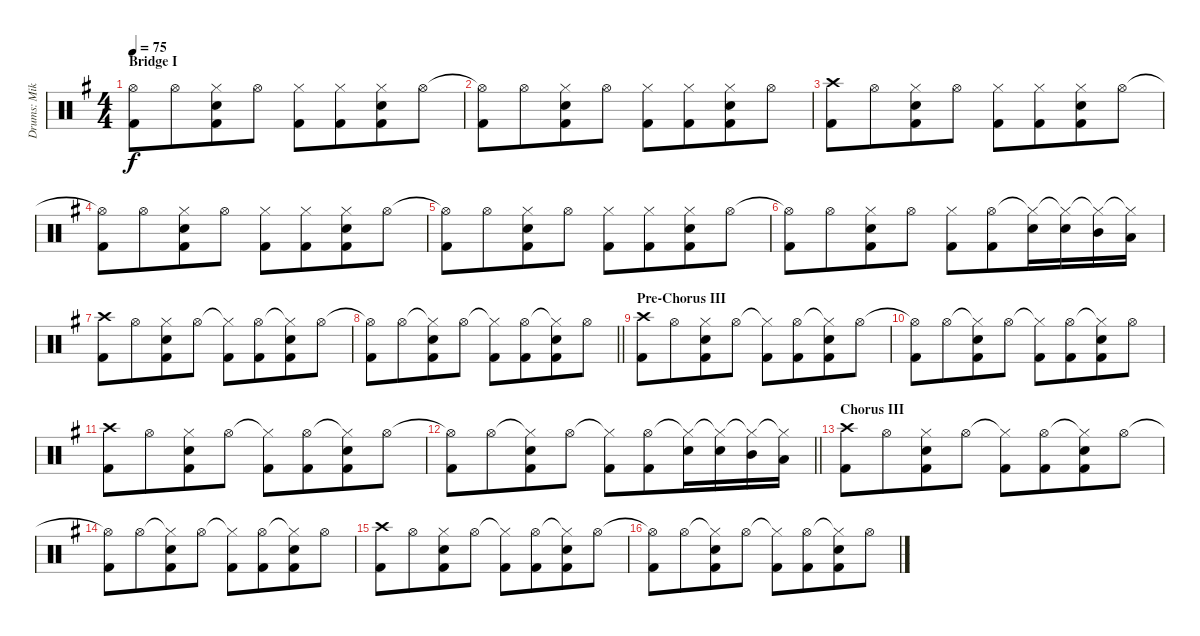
\track ("Drums: Mike" "Drums: Mik") {instrument percussion}
\staff {score}
\articulation defaults
\ts (4 4)
\section ("" "Bridge I")
\tempo 75
\clef neutral
\ks g
("Hi-Hat (open)"{t} "Kick (hit) 2").8{dy f} "Hi-Hat (open)".8{beam merge} ("Hi-Hat (closed)" "Electric Snare (hit)" "Kick (hit) 2").8 "Hi-Hat (open)".8 ("Hi-Hat (closed)" "Kick (hit) 2").8 ("Hi-Hat (closed)" "Kick (hit) 2").8{beam merge} ("Hi-Hat (closed)" "Electric Snare (hit)" "Kick (hit) 2").8 "Hi-Hat (open)".8 |
("Hi-Hat (open)"{t} "Kick (hit) 2").8 "Hi-Hat (open)".8{beam merge} ("Hi-Hat (closed)" "Electric Snare (hit)" "Kick (hit) 2").8 "Hi-Hat (open)".8 ("Hi-Hat (closed)" "Kick (hit) 2").8 ("Hi-Hat (closed)" "Kick (hit) 2").8{beam merge} ("Hi-Hat (closed)" "Electric Snare (hit)" "Kick (hit) 2").8 "Hi-Hat (open)".8 |
("Crash high (hit)" "Kick (hit) 2").8 "Hi-Hat (open)".8{beam merge} ("Hi-Hat (closed)" "Electric Snare (hit)" "Kick (hit) 2").8 "Hi-Hat (open)".8 ("Hi-Hat (closed)" "Kick (hit) 2").8 ("Hi-Hat (closed)" "Kick (hit) 2").8{beam merge} ("Hi-Hat (closed)" "Electric Snare (hit)" "Kick (hit) 2").8 "Hi-Hat (open)".8 |
("Hi-Hat (open)"{t} "Kick (hit) 2").8 "Hi-Hat (open)".8{beam merge} ("Hi-Hat (closed)" "Electric Snare (hit)" "Kick (hit) 2").8 "Hi-Hat (open)".8 ("Hi-Hat (closed)" "Kick (hit) 2").8 ("Hi-Hat (closed)" "Kick (hit) 2").8{beam merge} ("Hi-Hat (closed)" "Electric Snare (hit)" "Kick (hit) 2").8 "Hi-Hat (open)".8 |
("Hi-Hat (open)"{t} "Kick (hit) 2").8 "Hi-Hat (open)".8{beam merge} ("Hi-Hat (closed)" "Electric Snare (hit)" "Kick (hit) 2").8 "Hi-Hat (open)".8 ("Hi-Hat (closed)" "Kick (hit) 2").8 ("Hi-Hat (closed)" "Kick (hit) 2").8{beam merge} ("Hi-Hat (closed)" "Electric Snare (hit)" "Kick (hit) 2").8 "Hi-Hat (open)".8 |
("Hi-Hat (open)"{t} "Kick (hit) 2").8 "Hi-Hat (open)".8{beam merge} ("Hi-Hat (closed)" "Electric Snare (hit)" "Kick (hit) 2").8 "Hi-Hat (open)".8 ("Hi-Hat (closed)" "Kick (hit) 2").8 ("Hi-Hat (open)" "Kick (hit) 2").8{beam merge} ("Hi-Hat (closed)"{t} "Electric Snare (hit)").16{beam merge} ("Hi-Hat (closed)"{t} "Electric Snare (hit)").16{beam merge} ("Hi-Hat (closed)"{t} "Mid Tom (hit)").16{beam merge} ("Hi-Hat (closed)"{t} "Low Tom (hit)").16 |
("Crash high (hit)" "Kick (hit) 2").8 "Hi-Hat (open)".8{beam merge} ("Hi-Hat (closed)" "Electric Snare (hit)" "Kick (hit) 2").8 "Hi-Hat (open)".8 ("Hi-Hat (closed)"{t} "Kick (hit) 2").8 ("Hi-Hat (open)" "Kick (hit) 2").8{beam merge} ("Hi-Hat (closed)"{t} "Electric Snare (hit)" "Kick (hit) 2").8 "Hi-Hat (open)".8 |
\barLineRight lightlight
("Hi-Hat (open)"{t} "Kick (hit) 2").8 "Hi-Hat (open)".8{beam merge} ("Hi-Hat (closed)"{t} "Electric Snare (hit)" "Kick (hit) 2").8 "Hi-Hat (open)".8 ("Hi-Hat (closed)"{t} "Kick (hit) 2").8 ("Hi-Hat (open)" "Kick (hit) 2").8{beam merge} ("Hi-Hat (closed)"{t} "Electric Snare (hit)" "Kick (hit) 2").8 "Hi-Hat (open)".8 |
\section ("" "Pre-Chorus III")
("Crash high (hit)" "Kick (hit) 2").8 "Hi-Hat (open)".8{beam merge} ("Hi-Hat (closed)" "Electric Snare (hit)" "Kick (hit) 2").8 "Hi-Hat (open)".8 ("Hi-Hat (closed)"{t} "Kick (hit) 2").8 ("Hi-Hat (open)" "Kick (hit) 2").8{beam merge} ("Hi-Hat (closed)"{t} "Electric Snare (hit)" "Kick (hit) 2").8 "Hi-Hat (open)".8 |
("Hi-Hat (open)"{t} "Kick (hit) 2").8 "Hi-Hat (open)".8{beam merge} ("Hi-Hat (closed)"{t} "Electric Snare (hit)" "Kick (hit) 2").8 "Hi-Hat (open)".8 ("Hi-Hat (closed)"{t} "Kick (hit) 2").8 ("Hi-Hat (open)" "Kick (hit) 2").8{beam merge} ("Hi-Hat (closed)"{t} "Electric Snare (hit)" "Kick (hit) 2").8 "Hi-Hat (open)".8 |
("Crash high (hit)" "Kick (hit) 2").8 "Hi-Hat (open)".8{beam merge} ("Hi-Hat (closed)" "Electric Snare (hit)" "Kick (hit) 2").8 "Hi-Hat (open)".8 ("Hi-Hat (closed)"{t} "Kick (hit) 2").8 ("Hi-Hat (open)" "Kick (hit) 2").8{beam merge} ("Hi-Hat (closed)"{t} "Electric Snare (hit)" "Kick (hit) 2").8 "Hi-Hat (open)".8 |
\barLineRight lightlight
("Hi-Hat (open)"{t} "Kick (hit) 2").8 "Hi-Hat (open)".8{beam merge} ("Hi-Hat (closed)"{t} "Electric Snare (hit)" "Kick (hit) 2").8 "Hi-Hat (open)".8 ("Hi-Hat (closed)"{t} "Kick (hit) 2").8 ("Hi-Hat (open)" "Kick (hit) 2").8{beam merge} ("Hi-Hat (closed)"{t} "Electric Snare (hit)").16{beam merge} ("Hi-Hat (closed)"{t} "Electric Snare (hit)").16{beam merge} ("Hi-Hat (closed)"{t} "Mid Tom (hit)").16{beam merge} ("Hi-Hat (closed)"{t} "Low Tom (hit)").16 |
\section ("" "Chorus III")
("Crash high (hit)" "Kick (hit) 2").8 "Hi-Hat (open)".8{beam merge} ("Hi-Hat (closed)" "Electric Snare (hit)" "Kick (hit) 2").8 "Hi-Hat (open)".8 ("Hi-Hat (closed)"{t} "Kick (hit) 2").8 ("Hi-Hat (open)" "Kick (hit) 2").8{beam merge} ("Hi-Hat (closed)"{t} "Electric Snare (hit)" "Kick (hit) 2").8 "Hi-Hat (open)".8 |
("Hi-Hat (open)"{t} "Kick (hit) 2").8 "Hi-Hat (open)".8{beam merge} ("Hi-Hat (closed)"{t} "Electric Snare (hit)" "Kick (hit) 2").8 "Hi-Hat (open)".8 ("Hi-Hat (closed)"{t} "Kick (hit) 2").8 ("Hi-Hat (open)" "Kick (hit) 2").8{beam merge} ("Hi-Hat (closed)"{t} "Electric Snare (hit)" "Kick (hit) 2").8 "Hi-Hat (open)".8 |
("Crash high (hit)" "Kick (hit) 2").8 "Hi-Hat (open)".8{beam merge} ("Hi-Hat (closed)" "Electric Snare (hit)" "Kick (hit) 2").8 "Hi-Hat (open)".8 ("Hi-Hat (closed)"{t} "Kick (hit) 2").8 ("Hi-Hat (open)" "Kick (hit) 2").8{beam merge} ("Hi-Hat (closed)"{t} "Electric Snare (hit)" "Kick (hit) 2").8 "Hi-Hat (open)".8 |
("Hi-Hat (open)"{t} "Kick (hit) 2").8 "Hi-Hat (open)".8{beam merge} ("Hi-Hat (closed)"{t} "Electric Snare (hit)" "Kick (hit) 2").8 "Hi-Hat (open)".8 ("Hi-Hat (closed)"{t} "Kick (hit) 2").8 ("Hi-Hat (open)" "Kick (hit) 2").8{beam merge} ("Hi-Hat (closed)"{t} "Electric Snare (hit)" "Kick (hit) 2").8 "Hi-Hat (open)".8
